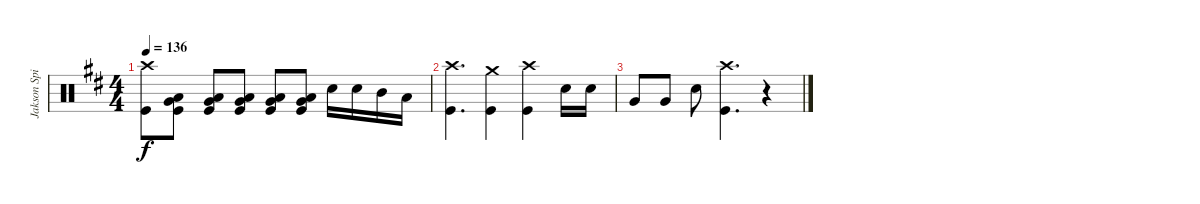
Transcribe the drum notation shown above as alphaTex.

\track ("Jakson Spires Drums" "Jakson Spi") {instrument percussion}
\staff {score}
\articulation defaults
\ts (4 4)
\tempo 136
\clef neutral
\ks d
("Crash high (hit)" "Kick (hit)").8{dy f} ("Low Tom (hit)" "Very Low Tom (hit)" "Kick (hit)").8 ("Low Tom (hit)" "Very Low Tom (hit)" "Kick (hit)").8 ("Low Tom (hit)" "Very Low Tom (hit)" "Kick (hit)").8 ("Low Tom (hit)" "Very Low Tom (hit)" "Kick (hit)").8 ("Low Tom (hit)" "Very Low Tom (hit)" "Kick (hit)").8 "Snare (hit) 2".16 "Snare (hit) 2".16 "Mid Tom (hit)".16 "Low Tom (hit)".16 |
("Crash high (hit)" "Kick (hit)").4{d} ("Crash medium (hit)" "Kick (hit)").4 ("Crash high (hit)" "Kick (hit)").4 "Snare (hit) 2".16 "Snare (hit) 2".16 |
"Very Low Tom (hit)".8 "Very Low Tom (hit)".8 "Snare (hit) 2".8 ("Crash high (hit)" "Kick (hit)").4{d} r.4
